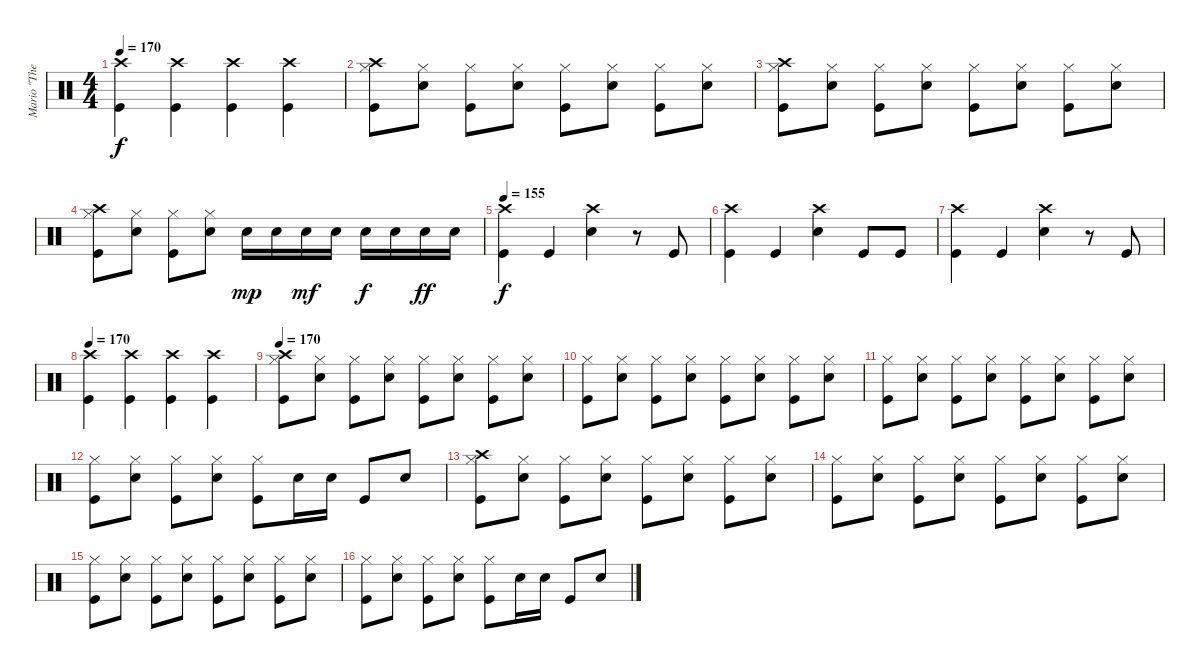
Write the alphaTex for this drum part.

\track ("Mario \"The Dremmel\" Hirt" "Mario \"The") {instrument percussion}
\staff {score}
\articulation defaults
\ts (4 4)
\tempo 170
\clef neutral
\ks c
("Crash high (hit)" "Kick (hit)").4{dy f} ("Crash high (hit)" "Kick (hit)").4 ("Crash high (hit)" "Kick (hit)").4 ("Crash high (hit)" "Kick (hit)").4 |
("Crash high (hit)" "Hi-Hat (closed)" "Kick (hit)").8 ("Hi-Hat (closed)" "Electric Snare (hit)").8 ("Hi-Hat (closed)" "Kick (hit)").8 ("Hi-Hat (closed)" "Electric Snare (hit)").8 ("Hi-Hat (closed)" "Kick (hit)").8 ("Hi-Hat (closed)" "Electric Snare (hit)").8 ("Hi-Hat (closed)" "Kick (hit)").8 ("Hi-Hat (closed)" "Electric Snare (hit)").8 |
("Crash high (hit)" "Hi-Hat (closed)" "Kick (hit)").8 ("Hi-Hat (closed)" "Electric Snare (hit)").8 ("Hi-Hat (closed)" "Kick (hit)").8 ("Hi-Hat (closed)" "Electric Snare (hit)").8 ("Hi-Hat (closed)" "Kick (hit)").8 ("Hi-Hat (closed)" "Electric Snare (hit)").8 ("Hi-Hat (closed)" "Kick (hit)").8 ("Hi-Hat (closed)" "Electric Snare (hit)").8 |
("Crash high (hit)" "Hi-Hat (closed)" "Kick (hit)").8 ("Hi-Hat (closed)" "Electric Snare (hit)").8 ("Hi-Hat (closed)" "Kick (hit)").8 ("Hi-Hat (closed)" "Electric Snare (hit)").8 "Electric Snare (hit)".16{dy mp} "Electric Snare (hit)".16 "Electric Snare (hit)".16{dy mf} "Electric Snare (hit)".16 "Electric Snare (hit)".16{dy f} "Electric Snare (hit)".16 "Electric Snare (hit)".16{dy ff} "Electric Snare (hit)".16 |
\tempo 155
("Crash high (hit)" "Kick (hit)").4{dy f} "Kick (hit)".4 ("Crash high (hit)" "Electric Snare (hit)").4 r.8 "Kick (hit)".8 |
("Crash high (hit)" "Kick (hit)").4 "Kick (hit)".4 ("Crash high (hit)" "Electric Snare (hit)").4 "Kick (hit)".8 "Kick (hit)".8 |
("Crash high (hit)" "Kick (hit)").4 "Kick (hit)".4 ("Crash high (hit)" "Electric Snare (hit)").4 r.8 "Kick (hit)".8 |
\tempo 170
("Crash high (hit)" "Kick (hit)").4 ("Crash high (hit)" "Kick (hit)").4 ("Crash high (hit)" "Kick (hit)").4 ("Crash high (hit)" "Kick (hit)").4 |
\tempo 170
("Crash high (hit)" "Hi-Hat (closed)" "Kick (hit)").8 ("Hi-Hat (closed)" "Electric Snare (hit)").8 ("Hi-Hat (closed)" "Kick (hit)").8 ("Hi-Hat (closed)" "Electric Snare (hit)").8 ("Hi-Hat (closed)" "Kick (hit)").8 ("Hi-Hat (closed)" "Electric Snare (hit)").8 ("Hi-Hat (closed)" "Kick (hit)").8 ("Hi-Hat (closed)" "Electric Snare (hit)").8 |
("Hi-Hat (closed)" "Kick (hit)").8 ("Hi-Hat (closed)" "Electric Snare (hit)").8 ("Hi-Hat (closed)" "Kick (hit)").8 ("Hi-Hat (closed)" "Electric Snare (hit)").8 ("Hi-Hat (closed)" "Kick (hit)").8 ("Hi-Hat (closed)" "Electric Snare (hit)").8 ("Hi-Hat (closed)" "Kick (hit)").8 ("Hi-Hat (closed)" "Electric Snare (hit)").8 |
("Hi-Hat (closed)" "Kick (hit)").8 ("Hi-Hat (closed)" "Electric Snare (hit)").8 ("Hi-Hat (closed)" "Kick (hit)").8 ("Hi-Hat (closed)" "Electric Snare (hit)").8 ("Hi-Hat (closed)" "Kick (hit)").8 ("Hi-Hat (closed)" "Electric Snare (hit)").8 ("Hi-Hat (closed)" "Kick (hit)").8 ("Hi-Hat (closed)" "Electric Snare (hit)").8 |
("Hi-Hat (closed)" "Kick (hit)").8 ("Hi-Hat (closed)" "Electric Snare (hit)").8 ("Hi-Hat (closed)" "Kick (hit)").8 ("Hi-Hat (closed)" "Electric Snare (hit)").8 ("Hi-Hat (closed)" "Kick (hit)").8 "Electric Snare (hit)".16 "Electric Snare (hit)".16 "Kick (hit)".8 "Electric Snare (hit)".8 |
("Crash high (hit)" "Hi-Hat (closed)" "Kick (hit)").8 ("Hi-Hat (closed)" "Electric Snare (hit)").8 ("Hi-Hat (closed)" "Kick (hit)").8 ("Hi-Hat (closed)" "Electric Snare (hit)").8 ("Hi-Hat (closed)" "Kick (hit)").8 ("Hi-Hat (closed)" "Electric Snare (hit)").8 ("Hi-Hat (closed)" "Kick (hit)").8 ("Hi-Hat (closed)" "Electric Snare (hit)").8 |
("Hi-Hat (closed)" "Kick (hit)").8 ("Hi-Hat (closed)" "Electric Snare (hit)").8 ("Hi-Hat (closed)" "Kick (hit)").8 ("Hi-Hat (closed)" "Electric Snare (hit)").8 ("Hi-Hat (closed)" "Kick (hit)").8 ("Hi-Hat (closed)" "Electric Snare (hit)").8 ("Hi-Hat (closed)" "Kick (hit)").8 ("Hi-Hat (closed)" "Electric Snare (hit)").8 |
("Hi-Hat (closed)" "Kick (hit)").8 ("Hi-Hat (closed)" "Electric Snare (hit)").8 ("Hi-Hat (closed)" "Kick (hit)").8 ("Hi-Hat (closed)" "Electric Snare (hit)").8 ("Hi-Hat (closed)" "Kick (hit)").8 ("Hi-Hat (closed)" "Electric Snare (hit)").8 ("Hi-Hat (closed)" "Kick (hit)").8 ("Hi-Hat (closed)" "Electric Snare (hit)").8 |
("Hi-Hat (closed)" "Kick (hit)").8 ("Hi-Hat (closed)" "Electric Snare (hit)").8 ("Hi-Hat (closed)" "Kick (hit)").8 ("Hi-Hat (closed)" "Electric Snare (hit)").8 ("Hi-Hat (closed)" "Kick (hit)").8 "Electric Snare (hit)".16 "Electric Snare (hit)".16 "Kick (hit)".8 "Electric Snare (hit)".8
